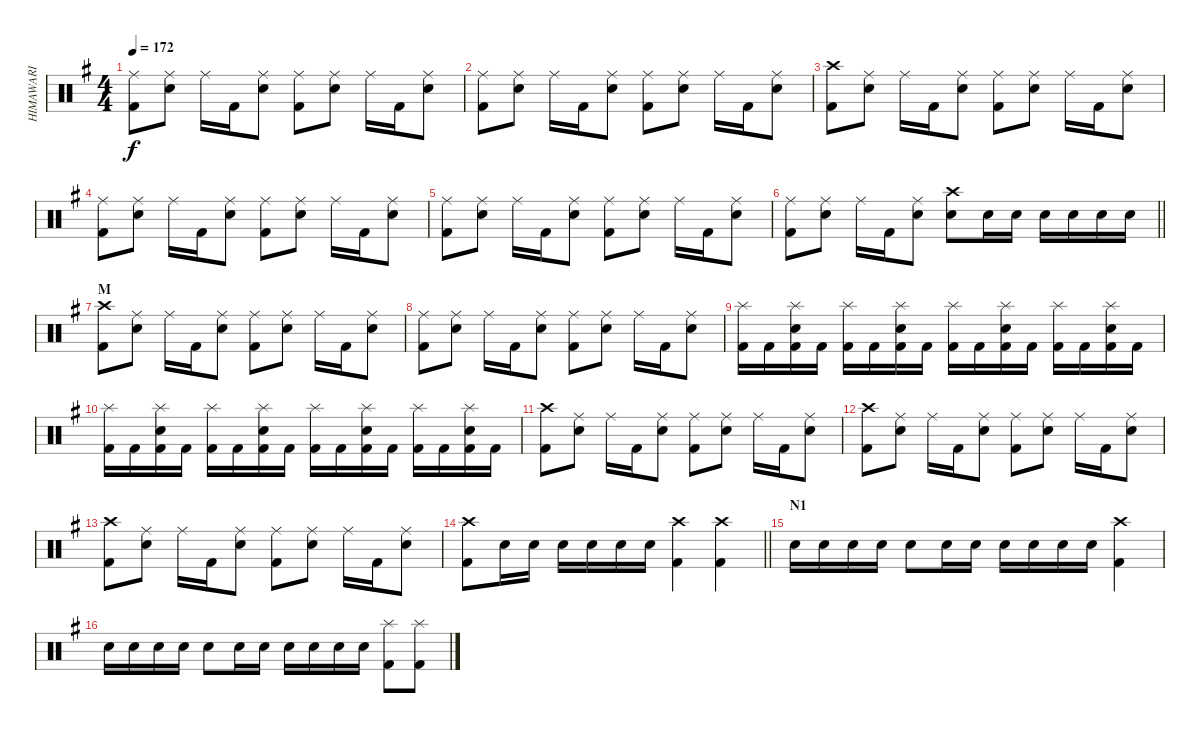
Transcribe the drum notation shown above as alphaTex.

\track ("HIMAWARI" "HIMAWARI") {instrument percussion}
\staff {score}
\articulation defaults
\ts (4 4)
\tempo 172
\clef neutral
\ks g
("Ride (middle)" "Kick (hit) 2").8{dy f} ("Ride (middle)" "Snare (hit) 2").8 "Ride (middle)".16 "Kick (hit) 2".16 ("Ride (middle)" "Snare (hit) 2").8 ("Ride (middle)" "Kick (hit) 2").8 ("Ride (middle)" "Snare (hit) 2").8 "Ride (middle)".16 "Kick (hit) 2".16 ("Ride (middle)" "Snare (hit) 2").8 |
("Ride (middle)" "Kick (hit) 2").8 ("Ride (middle)" "Snare (hit) 2").8 "Ride (middle)".16 "Kick (hit) 2".16 ("Ride (middle)" "Snare (hit) 2").8 ("Ride (middle)" "Kick (hit) 2").8 ("Ride (middle)" "Snare (hit) 2").8 "Ride (middle)".16 "Kick (hit) 2".16 ("Ride (middle)" "Snare (hit) 2").8 |
("Crash high (hit)" "Kick (hit) 2").8 ("Ride (middle)" "Snare (hit) 2").8 "Ride (middle)".16 "Kick (hit) 2".16 ("Ride (middle)" "Snare (hit) 2").8 ("Ride (middle)" "Kick (hit) 2").8 ("Ride (middle)" "Snare (hit) 2").8 "Ride (middle)".16 "Kick (hit) 2".16 ("Ride (middle)" "Snare (hit) 2").8 |
("Ride (middle)" "Kick (hit) 2").8 ("Ride (middle)" "Snare (hit) 2").8 "Ride (middle)".16 "Kick (hit) 2".16 ("Ride (middle)" "Snare (hit) 2").8 ("Ride (middle)" "Kick (hit) 2").8 ("Ride (middle)" "Snare (hit) 2").8 "Ride (middle)".16 "Kick (hit) 2".16 ("Ride (middle)" "Snare (hit) 2").8 |
("Ride (middle)" "Kick (hit) 2").8 ("Ride (middle)" "Snare (hit) 2").8 "Ride (middle)".16 "Kick (hit) 2".16 ("Ride (middle)" "Snare (hit) 2").8 ("Ride (middle)" "Kick (hit) 2").8 ("Ride (middle)" "Snare (hit) 2").8 "Ride (middle)".16 "Kick (hit) 2".16 ("Ride (middle)" "Snare (hit) 2").8 |
\barLineRight lightlight
("Ride (middle)" "Kick (hit) 2").8 ("Ride (middle)" "Snare (hit) 2").8 "Ride (middle)".16 "Kick (hit) 2".16 ("Ride (middle)" "Snare (hit) 2").8 ("Crash high (hit)" "Snare (hit) 2").8 "Snare (hit) 2".16 "Snare (hit) 2".16 "Snare (hit) 2".16 "Snare (hit) 2".16 "Snare (hit) 2".16 "Snare (hit) 2".16 |
\section ("" "M")
("Crash high (hit)" "Kick (hit) 2").8 ("Ride (middle)" "Snare (hit) 2").8 "Ride (middle)".16 "Kick (hit) 2".16 ("Ride (middle)" "Snare (hit) 2").8 ("Ride (middle)" "Kick (hit) 2").8 ("Ride (middle)" "Snare (hit) 2").8 "Ride (middle)".16 "Kick (hit) 2".16 ("Ride (middle)" "Snare (hit) 2").8 |
("Ride (middle)" "Kick (hit) 2").8 ("Ride (middle)" "Snare (hit) 2").8 "Ride (middle)".16 "Kick (hit) 2".16 ("Ride (middle)" "Snare (hit) 2").8 ("Ride (middle)" "Kick (hit) 2").8 ("Ride (middle)" "Snare (hit) 2").8 "Ride (middle)".16 "Kick (hit) 2".16 ("Ride (middle)" "Snare (hit) 2").8 |
("Splash (hit)" "Kick (hit) 2").16 "Kick (hit) 2".16 ("Splash (hit)" "Kick (hit) 2" "Snare (hit) 2").16 "Kick (hit) 2".16 ("Splash (hit)" "Kick (hit) 2").16 "Kick (hit) 2".16 ("Splash (hit)" "Kick (hit) 2" "Snare (hit) 2").16 "Kick (hit) 2".16 ("Splash (hit)" "Kick (hit) 2").16 "Kick (hit) 2".16 ("Splash (hit)" "Kick (hit) 2" "Snare (hit) 2").16 "Kick (hit) 2".16 ("Splash (hit)" "Kick (hit) 2").16 "Kick (hit) 2".16 ("Splash (hit)" "Kick (hit) 2" "Snare (hit) 2").16 "Kick (hit) 2".16 |
("Splash (hit)" "Kick (hit) 2").16 "Kick (hit) 2".16 ("Splash (hit)" "Kick (hit) 2" "Snare (hit) 2").16 "Kick (hit) 2".16 ("Splash (hit)" "Kick (hit) 2").16 "Kick (hit) 2".16 ("Splash (hit)" "Kick (hit) 2" "Snare (hit) 2").16 "Kick (hit) 2".16 ("Splash (hit)" "Kick (hit) 2").16 "Kick (hit) 2".16 ("Splash (hit)" "Kick (hit) 2" "Snare (hit) 2").16 "Kick (hit) 2".16 ("Splash (hit)" "Kick (hit) 2").16 "Kick (hit) 2".16 ("Splash (hit)" "Kick (hit) 2" "Snare (hit) 2").16 "Kick (hit) 2".16 |
("Crash high (hit)" "Kick (hit) 2").8 ("Ride (middle)" "Snare (hit) 2").8 "Ride (middle)".16 "Kick (hit) 2".16 ("Ride (middle)" "Snare (hit) 2").8 ("Ride (middle)" "Kick (hit) 2").8 ("Ride (middle)" "Snare (hit) 2").8 "Ride (middle)".16 "Kick (hit) 2".16 ("Ride (middle)" "Snare (hit) 2").8 |
("Crash high (hit)" "Kick (hit) 2").8 ("Ride (middle)" "Snare (hit) 2").8 "Ride (middle)".16 "Kick (hit) 2".16 ("Ride (middle)" "Snare (hit) 2").8 ("Ride (middle)" "Kick (hit) 2").8 ("Ride (middle)" "Snare (hit) 2").8 "Ride (middle)".16 "Kick (hit) 2".16 ("Ride (middle)" "Snare (hit) 2").8 |
("Crash high (hit)" "Kick (hit) 2").8 ("Ride (middle)" "Snare (hit) 2").8 "Ride (middle)".16 "Kick (hit) 2".16 ("Ride (middle)" "Snare (hit) 2").8 ("Ride (middle)" "Kick (hit) 2").8 ("Ride (middle)" "Snare (hit) 2").8 "Ride (middle)".16 "Kick (hit) 2".16 ("Ride (middle)" "Snare (hit) 2").8 |
\barLineRight lightlight
("Crash high (hit)" "Kick (hit) 2").8 "Snare (hit) 2".16 "Snare (hit) 2".16 "Snare (hit) 2".16 "Snare (hit) 2".16 "Snare (hit) 2".16 "Snare (hit) 2".16 ("Crash high (hit)" "Kick (hit) 2").4 ("Crash high (hit)" "Kick (hit) 2").4 |
\section ("" "N1")
"Snare (hit) 2".16 "Snare (hit) 2".16 "Snare (hit) 2".16 "Snare (hit) 2".16 "Snare (hit) 2".8 "Snare (hit) 2".16 "Snare (hit) 2".16 "Snare (hit) 2".16 "Snare (hit) 2".16 "Snare (hit) 2".16 "Snare (hit) 2".16 ("Crash high (hit)" "Kick (hit) 2").4 |
"Snare (hit) 2".16 "Snare (hit) 2".16 "Snare (hit) 2".16 "Snare (hit) 2".16 "Snare (hit) 2".8 "Snare (hit) 2".16 "Snare (hit) 2".16 "Snare (hit) 2".16 "Snare (hit) 2".16 "Snare (hit) 2".16 "Snare (hit) 2".16 ("Splash (hit)" "Kick (hit) 2").8 ("Splash (hit)" "Kick (hit) 2").8
